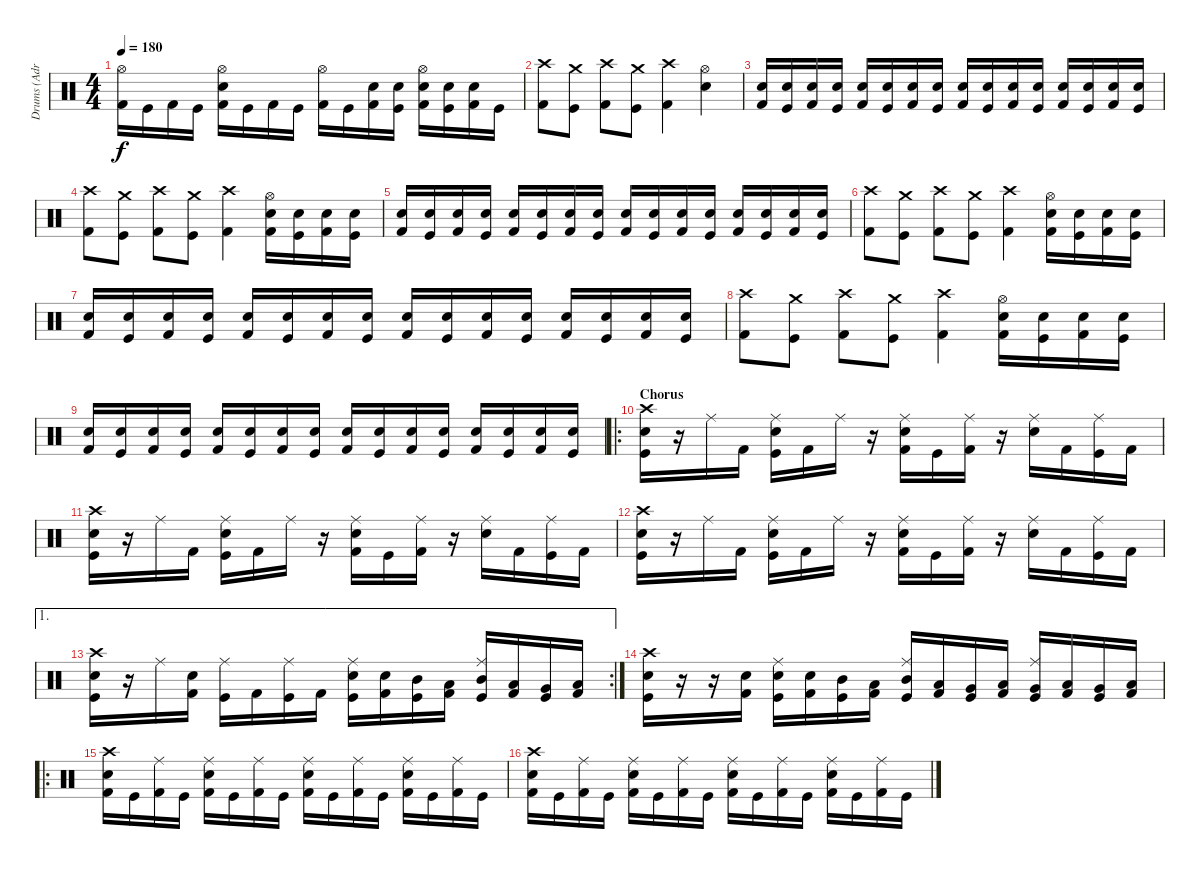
\track ("Drums (Adrian)" "Drums (Adr") {instrument percussion}
\staff {score}
\articulation defaults
\ts (4 4)
\tempo 180
\clef neutral
\ks c
("Hi-Hat (open)" "Kick (hit) 2").16{dy f} "Kick (hit)".16 "Kick (hit) 2".16 "Kick (hit)".16 ("Hi-Hat (open)" "Electric Snare (hit)" "Kick (hit) 2").16 "Kick (hit)".16 "Kick (hit) 2".16 "Kick (hit)".16 ("Hi-Hat (open)" "Kick (hit) 2").16 "Kick (hit)".16 ("Electric Snare (hit)" "Kick (hit) 2").16 ("Electric Snare (hit)" "Kick (hit)").16 ("Hi-Hat (open)" "Electric Snare (hit)" "Kick (hit) 2").16 ("Electric Snare (hit)" "Kick (hit)").16 ("Electric Snare (hit)" "Kick (hit) 2").16 "Kick (hit)".16 |
("Crash high (hit)" "Kick (hit) 2").8 ("Crash medium (hit)" "Kick (hit)").8 ("Crash high (hit)" "Kick (hit) 2").8 ("Crash medium (hit)" "Kick (hit)").8 ("Crash high (hit)" "Kick (hit) 2").4 ("Hi-Hat (open)" "Electric Snare (hit)").4 |
("Electric Snare (hit)" "Kick (hit) 2").16 ("Electric Snare (hit)" "Kick (hit)").16 ("Electric Snare (hit)" "Kick (hit) 2").16 ("Electric Snare (hit)" "Kick (hit)").16 ("Electric Snare (hit)" "Kick (hit) 2").16 ("Electric Snare (hit)" "Kick (hit)").16 ("Electric Snare (hit)" "Kick (hit) 2").16 ("Electric Snare (hit)" "Kick (hit)").16 ("Electric Snare (hit)" "Kick (hit) 2").16 ("Electric Snare (hit)" "Kick (hit)").16 ("Electric Snare (hit)" "Kick (hit) 2").16 ("Electric Snare (hit)" "Kick (hit)").16 ("Electric Snare (hit)" "Kick (hit) 2").16 ("Electric Snare (hit)" "Kick (hit)").16 ("Electric Snare (hit)" "Kick (hit) 2").16 ("Electric Snare (hit)" "Kick (hit)").16 |
("Crash high (hit)" "Kick (hit) 2").8 ("Crash medium (hit)" "Kick (hit)").8 ("Crash high (hit)" "Kick (hit) 2").8 ("Crash medium (hit)" "Kick (hit)").8 ("Crash high (hit)" "Kick (hit) 2").4 ("Hi-Hat (open)" "Electric Snare (hit)" "Kick (hit) 2").16 ("Electric Snare (hit)" "Kick (hit)").16 ("Electric Snare (hit)" "Kick (hit) 2").16 ("Electric Snare (hit)" "Kick (hit)").16 |
("Electric Snare (hit)" "Kick (hit) 2").16 ("Electric Snare (hit)" "Kick (hit)").16 ("Electric Snare (hit)" "Kick (hit) 2").16 ("Electric Snare (hit)" "Kick (hit)").16 ("Electric Snare (hit)" "Kick (hit) 2").16 ("Electric Snare (hit)" "Kick (hit)").16 ("Electric Snare (hit)" "Kick (hit) 2").16 ("Electric Snare (hit)" "Kick (hit)").16 ("Electric Snare (hit)" "Kick (hit) 2").16 ("Electric Snare (hit)" "Kick (hit)").16 ("Electric Snare (hit)" "Kick (hit) 2").16 ("Electric Snare (hit)" "Kick (hit)").16 ("Electric Snare (hit)" "Kick (hit) 2").16 ("Electric Snare (hit)" "Kick (hit)").16 ("Electric Snare (hit)" "Kick (hit) 2").16 ("Electric Snare (hit)" "Kick (hit)").16 |
("Crash high (hit)" "Kick (hit) 2").8 ("Crash medium (hit)" "Kick (hit)").8 ("Crash high (hit)" "Kick (hit) 2").8 ("Crash medium (hit)" "Kick (hit)").8 ("Crash high (hit)" "Kick (hit) 2").4 ("Hi-Hat (open)" "Electric Snare (hit)" "Kick (hit) 2").16 ("Electric Snare (hit)" "Kick (hit)").16 ("Electric Snare (hit)" "Kick (hit) 2").16 ("Electric Snare (hit)" "Kick (hit)").16 |
("Electric Snare (hit)" "Kick (hit) 2").16 ("Electric Snare (hit)" "Kick (hit)").16 ("Electric Snare (hit)" "Kick (hit) 2").16 ("Electric Snare (hit)" "Kick (hit)").16 ("Electric Snare (hit)" "Kick (hit) 2").16 ("Electric Snare (hit)" "Kick (hit)").16 ("Electric Snare (hit)" "Kick (hit) 2").16 ("Electric Snare (hit)" "Kick (hit)").16 ("Electric Snare (hit)" "Kick (hit) 2").16 ("Electric Snare (hit)" "Kick (hit)").16 ("Electric Snare (hit)" "Kick (hit) 2").16 ("Electric Snare (hit)" "Kick (hit)").16 ("Electric Snare (hit)" "Kick (hit) 2").16 ("Electric Snare (hit)" "Kick (hit)").16 ("Electric Snare (hit)" "Kick (hit) 2").16 ("Electric Snare (hit)" "Kick (hit)").16 |
("Crash high (hit)" "Kick (hit) 2").8 ("Crash medium (hit)" "Kick (hit)").8 ("Crash high (hit)" "Kick (hit) 2").8 ("Crash medium (hit)" "Kick (hit)").8 ("Crash high (hit)" "Kick (hit) 2").4 ("Hi-Hat (open)" "Electric Snare (hit)" "Kick (hit) 2").16 ("Electric Snare (hit)" "Kick (hit)").16 ("Electric Snare (hit)" "Kick (hit) 2").16 ("Electric Snare (hit)" "Kick (hit)").16 |
("Electric Snare (hit)" "Kick (hit) 2").16 ("Electric Snare (hit)" "Kick (hit)").16 ("Electric Snare (hit)" "Kick (hit) 2").16 ("Electric Snare (hit)" "Kick (hit)").16 ("Electric Snare (hit)" "Kick (hit) 2").16 ("Electric Snare (hit)" "Kick (hit)").16 ("Electric Snare (hit)" "Kick (hit) 2").16 ("Electric Snare (hit)" "Kick (hit)").16 ("Electric Snare (hit)" "Kick (hit) 2").16 ("Electric Snare (hit)" "Kick (hit)").16 ("Electric Snare (hit)" "Kick (hit) 2").16 ("Electric Snare (hit)" "Kick (hit)").16 ("Electric Snare (hit)" "Kick (hit) 2").16 ("Electric Snare (hit)" "Kick (hit)").16 ("Electric Snare (hit)" "Kick (hit) 2").16 ("Electric Snare (hit)" "Kick (hit)").16 |
\ro
\section ("" "Chorus")
("Crash high (hit)" "Electric Snare (hit)" "Kick (hit)").16 r.16 "Ride (middle)".16 "Kick (hit) 2".16 ("Ride (middle)" "Electric Snare (hit)" "Kick (hit)").16 "Kick (hit) 2".16 "Ride (middle)".16 r.16 ("Ride (middle)" "Electric Snare (hit)" "Kick (hit) 2").16 "Kick (hit)".16 ("Ride (middle)" "Kick (hit) 2").16 r.16 ("Ride (middle)" "Electric Snare (hit)").16 "Kick (hit) 2".16 ("Ride (middle)" "Kick (hit)").16 "Kick (hit) 2".16 |
("Crash high (hit)" "Electric Snare (hit)" "Kick (hit)").16 r.16 "Ride (middle)".16 "Kick (hit) 2".16 ("Ride (middle)" "Electric Snare (hit)" "Kick (hit)").16 "Kick (hit) 2".16 "Ride (middle)".16 r.16 ("Ride (middle)" "Electric Snare (hit)" "Kick (hit) 2").16 "Kick (hit)".16 ("Ride (middle)" "Kick (hit) 2").16 r.16 ("Ride (middle)" "Electric Snare (hit)").16 "Kick (hit) 2".16 ("Ride (middle)" "Kick (hit)").16 "Kick (hit) 2".16 |
("Crash high (hit)" "Electric Snare (hit)" "Kick (hit)").16 r.16 "Ride (middle)".16 "Kick (hit) 2".16 ("Ride (middle)" "Electric Snare (hit)" "Kick (hit)").16 "Kick (hit) 2".16 "Ride (middle)".16 r.16 ("Ride (middle)" "Electric Snare (hit)" "Kick (hit) 2").16 "Kick (hit)".16 ("Ride (middle)" "Kick (hit) 2").16 r.16 ("Ride (middle)" "Electric Snare (hit)").16 "Kick (hit) 2".16 ("Ride (middle)" "Kick (hit)").16 "Kick (hit) 2".16 |
\ae 1
\rc 2
("Crash high (hit)" "Electric Snare (hit)" "Kick (hit)").16 r.16 "Ride (middle)".16 ("Electric Snare (hit)" "Kick (hit) 2").16 ("Ride (middle)" "Kick (hit)").16 "Kick (hit) 2".16 ("Ride (middle)" "Kick (hit)").16 "Kick (hit) 2".16 ("Ride (middle)" "Electric Snare (hit)" "Kick (hit)").16 ("Electric Snare (hit)" "Kick (hit) 2").16 ("Mid Tom (hit)" "Kick (hit)").16 ("Low Tom (hit)" "Kick (hit) 2").16 ("Ride (middle)" "Mid Tom (hit)" "Kick (hit)").16 ("Low Tom (hit)" "Kick (hit) 2").16 ("Very Low Tom (hit)" "Kick (hit)").16 ("Low Tom (hit)" "Kick (hit) 2").16 |
("Crash high (hit)" "Electric Snare (hit)" "Kick (hit)").16 r.16 r.16 ("Electric Snare (hit)" "Kick (hit) 2").16 ("Ride (middle)" "Electric Snare (hit)" "Kick (hit)").16 ("Electric Snare (hit)" "Kick (hit) 2").16 ("Mid Tom (hit)" "Kick (hit)").16 ("Low Tom (hit)" "Kick (hit) 2").16 ("Ride (middle)" "Mid Tom (hit)" "Kick (hit)").16 ("Low Tom (hit)" "Kick (hit) 2").16 ("Very Low Tom (hit)" "Kick (hit)").16 ("Low Tom (hit)" "Kick (hit) 2").16 ("Ride (middle)" "Very Low Tom (hit)" "Kick (hit)").16 ("Low Floor Tom (hit)" "Kick (hit) 2").16 ("Very Low Tom (hit)" "Kick (hit)").16 ("Low Floor Tom (hit)" "Kick (hit) 2").16 |
\ro
("Crash high (hit)" "Electric Snare (hit)" "Kick (hit) 2").16 "Kick (hit)".16 ("Ride (middle)" "Kick (hit) 2").16 "Kick (hit)".16 ("Ride (middle)" "Electric Snare (hit)" "Kick (hit) 2").16 "Kick (hit)".16 ("Ride (middle)" "Kick (hit) 2").16 "Kick (hit)".16 ("Ride (middle)" "Electric Snare (hit)" "Kick (hit) 2").16 "Kick (hit)".16 ("Ride (middle)" "Kick (hit) 2").16 "Kick (hit)".16 ("Ride (middle)" "Electric Snare (hit)" "Kick (hit) 2").16 "Kick (hit)".16 ("Ride (middle)" "Kick (hit) 2").16 "Kick (hit)".16 |
("Crash high (hit)" "Electric Snare (hit)" "Kick (hit) 2").16 "Kick (hit)".16 ("Ride (middle)" "Kick (hit) 2").16 "Kick (hit)".16 ("Ride (middle)" "Electric Snare (hit)" "Kick (hit) 2").16 "Kick (hit)".16 ("Ride (middle)" "Kick (hit) 2").16 "Kick (hit)".16 ("Ride (middle)" "Electric Snare (hit)" "Kick (hit) 2").16 "Kick (hit)".16 ("Ride (middle)" "Kick (hit) 2").16 "Kick (hit)".16 ("Ride (middle)" "Electric Snare (hit)" "Kick (hit) 2").16 "Kick (hit)".16 ("Ride (middle)" "Kick (hit) 2").16 "Kick (hit)".16
